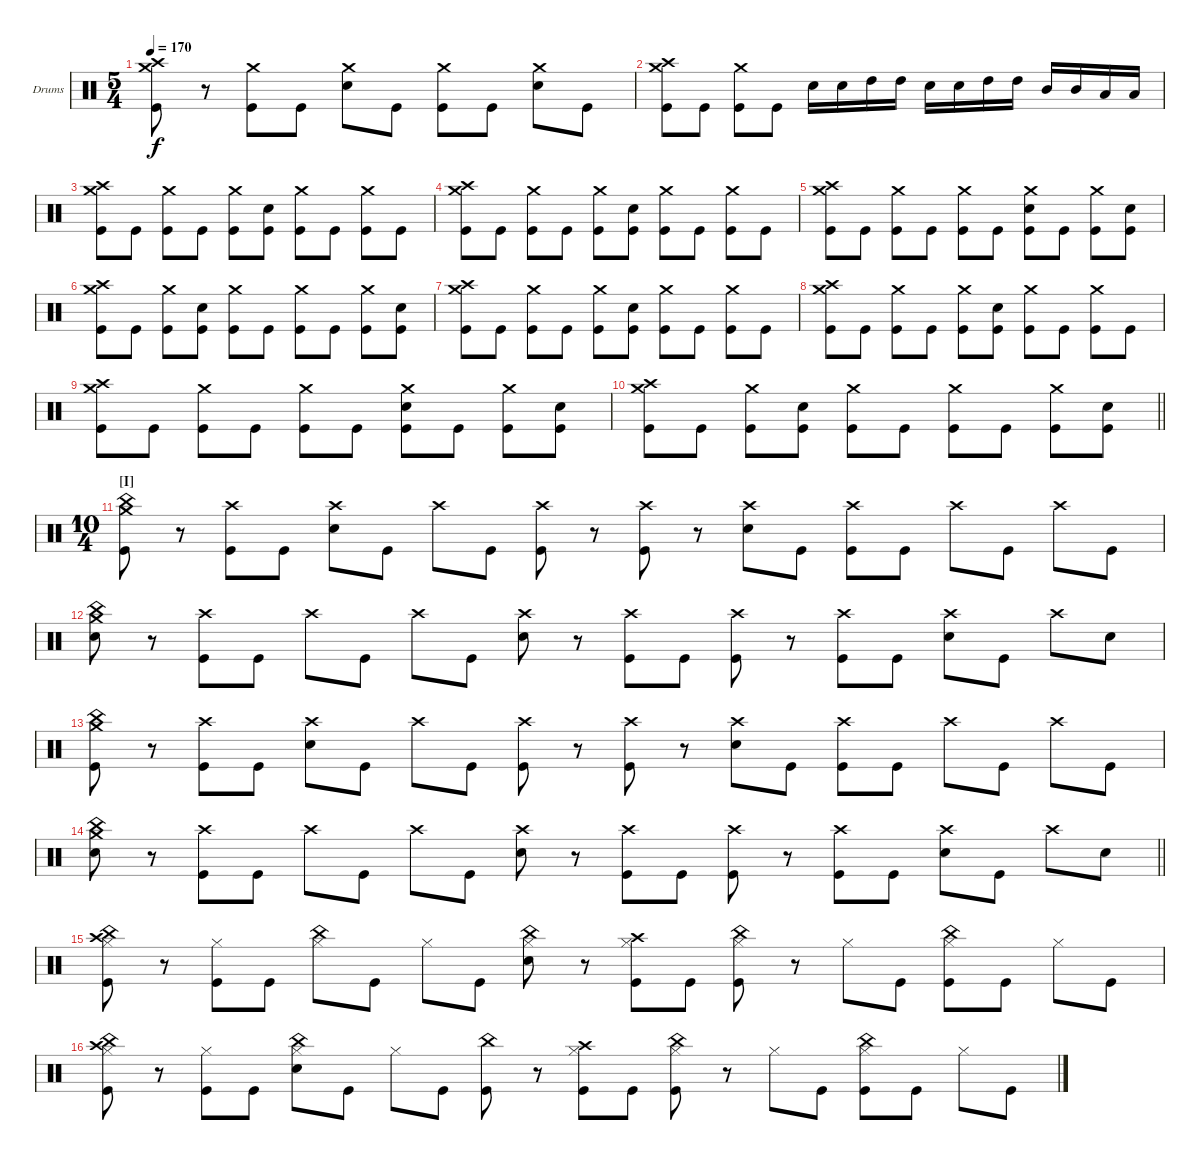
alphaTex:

\bracketExtendMode groupsimilarinstruments
\firstSystemTrackNameOrientation horizontal
\otherSystemsTrackNameOrientation horizontal
\track ("Drumkit" "Drums") {multiBarRest instrument percussion}
\staff {score}
\articulation defaults
\ts (5 4)
\tempo 170
\clef neutral
\ks c
("Crash medium (hit)" "Crash high (hit)" "Kick (hit)").8{dy f} r.8 ("Crash medium (hit)" "Kick (hit)").8 "Kick (hit)".8 ("Crash medium (hit)" "Snare (hit) 2").8 "Kick (hit)".8 ("Crash medium (hit)" "Kick (hit)").8 "Kick (hit)".8 ("Crash medium (hit)" "Snare (hit) 2").8 "Kick (hit)".8 |
("Crash medium (hit)" "Crash high (hit)" "Kick (hit)").8 "Kick (hit)".8 ("Crash medium (hit)" "Kick (hit)").8 "Kick (hit)".8{beam split} "Snare (hit) 2".16 "Snare (hit) 2".16 "High Tom (hit)".16 "High Tom (hit)".16 "Snare (hit) 2".16 "Snare (hit) 2".16 "High Tom (hit)".16 "High Tom (hit)".16{beam split} "Mid Tom (hit)".16 "Mid Tom (hit)".16 "Low Tom (hit)".16 "Low Tom (hit)".16 |
("Crash medium (hit)" "Crash high (hit)" "Kick (hit)").8 "Kick (hit)".8 ("Crash medium (hit)" "Kick (hit)").8 "Kick (hit)".8 ("Crash medium (hit)" "Kick (hit)").8 ("Snare (hit) 2" "Kick (hit)").8 ("Crash medium (hit)" "Kick (hit)").8 "Kick (hit)".8 ("Crash medium (hit)" "Kick (hit)").8 "Kick (hit)".8 |
("Crash medium (hit)" "Crash high (hit)" "Kick (hit)").8 "Kick (hit)".8 ("Crash medium (hit)" "Kick (hit)").8 "Kick (hit)".8 ("Crash medium (hit)" "Kick (hit)").8 ("Snare (hit) 2" "Kick (hit)").8 ("Crash medium (hit)" "Kick (hit)").8 "Kick (hit)".8 ("Crash medium (hit)" "Kick (hit)").8 "Kick (hit)".8 |
("Crash medium (hit)" "Crash high (hit)" "Kick (hit)").8 "Kick (hit)".8 ("Crash medium (hit)" "Kick (hit)").8 "Kick (hit)".8 ("Crash medium (hit)" "Kick (hit)").8 "Kick (hit)".8 ("Crash medium (hit)" "Snare (hit) 2" "Kick (hit)").8 "Kick (hit)".8 ("Crash medium (hit)" "Kick (hit)").8 ("Snare (hit) 2" "Kick (hit)").8 |
("Crash medium (hit)" "Crash high (hit)" "Kick (hit)").8 "Kick (hit)".8 ("Crash medium (hit)" "Kick (hit)").8 ("Kick (hit)" "Snare (hit) 2").8 ("Crash medium (hit)" "Kick (hit)").8 "Kick (hit)".8 ("Crash medium (hit)" "Kick (hit)").8 "Kick (hit)".8 ("Crash medium (hit)" "Kick (hit)").8 ("Kick (hit)" "Snare (hit) 2").8 |
("Crash medium (hit)" "Crash high (hit)" "Kick (hit)").8 "Kick (hit)".8 ("Crash medium (hit)" "Kick (hit)").8 "Kick (hit)".8 ("Crash medium (hit)" "Kick (hit)").8 ("Snare (hit) 2" "Kick (hit)").8 ("Crash medium (hit)" "Kick (hit)").8 "Kick (hit)".8 ("Crash medium (hit)" "Kick (hit)").8 "Kick (hit)".8 |
("Crash medium (hit)" "Crash high (hit)" "Kick (hit)").8 "Kick (hit)".8 ("Crash medium (hit)" "Kick (hit)").8 "Kick (hit)".8 ("Crash medium (hit)" "Kick (hit)").8 ("Snare (hit) 2" "Kick (hit)").8 ("Crash medium (hit)" "Kick (hit)").8 "Kick (hit)".8 ("Crash medium (hit)" "Kick (hit)").8 "Kick (hit)".8 |
("Crash medium (hit)" "Crash high (hit)" "Kick (hit)").8 "Kick (hit)".8 ("Crash medium (hit)" "Kick (hit)").8 "Kick (hit)".8 ("Crash medium (hit)" "Kick (hit)").8 "Kick (hit)".8 ("Crash medium (hit)" "Snare (hit) 2" "Kick (hit)").8 "Kick (hit)".8 ("Crash medium (hit)" "Kick (hit)").8 ("Snare (hit) 2" "Kick (hit)").8 |
\barLineRight lightlight
("Crash medium (hit)" "Crash high (hit)" "Kick (hit)").8 "Kick (hit)".8 ("Crash medium (hit)" "Kick (hit)").8 ("Kick (hit)" "Snare (hit) 2").8 ("Crash medium (hit)" "Kick (hit)").8 "Kick (hit)".8 ("Crash medium (hit)" "Kick (hit)").8 "Kick (hit)".8 ("Crash medium (hit)" "Kick (hit)").8 ("Kick (hit)" "Snare (hit) 2").8 |
\ts (10 4)
\section ("I" "")
("Crash medium (hit)" "China (hit)" "Kick (hit)").8 r.8 ("Crash high (hit)" "Kick (hit)").8 "Kick (hit)".8 ("Crash high (hit)" "Snare (hit) 2").8 "Kick (hit)".8 "Crash high (hit)".8 "Kick (hit)".8 ("Crash high (hit)" "Kick (hit)").8 r.8 ("Crash high (hit)" "Kick (hit)").8 r.8 ("Crash high (hit)" "Snare (hit) 2").8 "Kick (hit)".8 ("Crash high (hit)" "Kick (hit)").8 "Kick (hit)".8 "Crash high (hit)".8 "Kick (hit)".8 "Crash high (hit)".8 "Kick (hit)".8 |
("Crash medium (hit)" "China (hit)" "Snare (hit) 2").8 r.8 ("Crash high (hit)" "Kick (hit)").8 "Kick (hit)".8 "Crash high (hit)".8 "Kick (hit)".8 "Crash high (hit)".8 "Kick (hit)".8 ("Crash high (hit)" "Snare (hit) 2").8 r.8 ("Crash high (hit)" "Kick (hit)").8 "Kick (hit)".8 ("Crash high (hit)" "Kick (hit)").8 r.8 ("Crash high (hit)" "Kick (hit)").8 "Kick (hit)".8 ("Crash high (hit)" "Snare (hit) 2").8 "Kick (hit)".8 "Crash high (hit)".8 "Snare (hit) 2".8 |
("Crash medium (hit)" "China (hit)" "Kick (hit)").8 r.8 ("Crash high (hit)" "Kick (hit)").8 "Kick (hit)".8 ("Crash high (hit)" "Snare (hit) 2").8 "Kick (hit)".8 "Crash high (hit)".8 "Kick (hit)".8 ("Crash high (hit)" "Kick (hit)").8 r.8 ("Crash high (hit)" "Kick (hit)").8 r.8 ("Crash high (hit)" "Snare (hit) 2").8 "Kick (hit)".8 ("Crash high (hit)" "Kick (hit)").8 "Kick (hit)".8 "Crash high (hit)".8 "Kick (hit)".8 "Crash high (hit)".8 "Kick (hit)".8 |
\barLineRight lightlight
("Crash medium (hit)" "China (hit)" "Snare (hit) 2").8 r.8 ("Crash high (hit)" "Kick (hit)").8 "Kick (hit)".8 "Crash high (hit)".8 "Kick (hit)".8 "Crash high (hit)".8 "Kick (hit)".8 ("Crash high (hit)" "Snare (hit) 2").8 r.8 ("Crash high (hit)" "Kick (hit)").8 "Kick (hit)".8 ("Crash high (hit)" "Kick (hit)").8 r.8 ("Crash high (hit)" "Kick (hit)").8 "Kick (hit)".8 ("Crash high (hit)" "Snare (hit) 2").8 "Kick (hit)".8 "Crash high (hit)".8 "Snare (hit) 2".8 |
("China (hit)" "Crash high (hit)" "Hi-Hat (closed)" "Kick (hit)").8 r.8 ("Hi-Hat (closed)" "Kick (hit)").8 "Kick (hit)".8 ("China (hit)" "Hi-Hat (closed)").8 "Kick (hit)".8 "Hi-Hat (closed)".8 "Kick (hit)".8 ("China (hit)" "Snare (hit) 2" "Hi-Hat (closed)").8 r.8 ("Crash high (hit)" "Hi-Hat (closed)" "Kick (hit)").8 "Kick (hit)".8 ("China (hit)" "Hi-Hat (closed)" "Kick (hit)").8 r.8 "Hi-Hat (closed)".8 "Kick (hit)".8 ("China (hit)" "Hi-Hat (closed)" "Kick (hit)").8 "Kick (hit)".8 "Hi-Hat (closed)".8 "Kick (hit)".8 |
("China (hit)" "Crash high (hit)" "Hi-Hat (closed)" "Kick (hit)").8 r.8 ("Hi-Hat (closed)" "Kick (hit)").8 "Kick (hit)".8 ("China (hit)" "Snare (hit) 2" "Hi-Hat (closed)").8 "Kick (hit)".8 "Hi-Hat (closed)".8 "Kick (hit)".8 ("China (hit)" "Kick (hit)").8 r.8 ("Crash high (hit)" "Hi-Hat (closed)" "Kick (hit)").8 "Kick (hit)".8 ("China (hit)" "Hi-Hat (closed)" "Kick (hit)").8 r.8 "Hi-Hat (closed)".8 "Kick (hit)".8 ("China (hit)" "Hi-Hat (closed)" "Kick (hit)").8 "Kick (hit)".8 "Hi-Hat (closed)".8 "Kick (hit)".8
